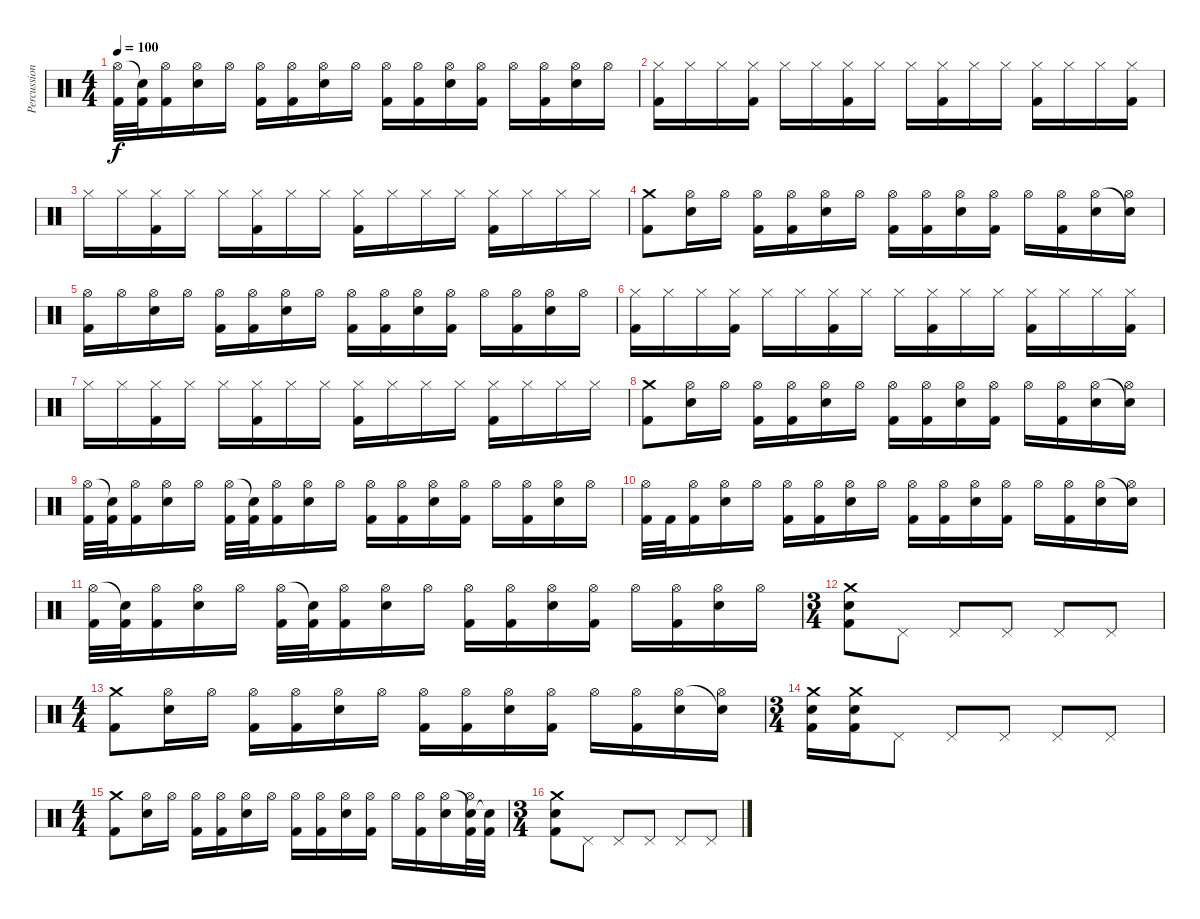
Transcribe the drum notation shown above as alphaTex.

\track ("Percussion" "Percussion") {instrument percussion}
\staff {score}
\articulation defaults
\ts (4 4)
\tempo 100
\clef neutral
\ks c
("Hi-Hat (open)" "Kick (hit) 2").32{dy f} ("Snare (hit)"{t} "Kick (hit) 2").32 ("Hi-Hat (open)" "Kick (hit) 2").16 ("Hi-Hat (open)" "Electric Snare (hit)").16 "Hi-Hat (open)".16 ("Hi-Hat (open)" "Kick (hit) 2").16 ("Hi-Hat (open)" "Kick (hit) 2").16 ("Hi-Hat (open)" "Electric Snare (hit)").16 "Hi-Hat (open)".16 ("Hi-Hat (open)" "Kick (hit) 2").16 ("Hi-Hat (open)" "Kick (hit) 2").16 ("Hi-Hat (open)" "Electric Snare (hit)").16 ("Hi-Hat (open)" "Kick (hit) 2").16 "Hi-Hat (open)".16 ("Hi-Hat (open)" "Kick (hit) 2").16 ("Hi-Hat (open)" "Electric Snare (hit)").16 "Hi-Hat (open)".16 |
("Hi-Hat (closed)" "Kick (hit) 2").16 "Hi-Hat (closed)".16 "Hi-Hat (closed)".16 ("Hi-Hat (closed)" "Kick (hit) 2").16 "Hi-Hat (closed)".16 "Hi-Hat (closed)".16 ("Hi-Hat (closed)" "Kick (hit) 2").16 "Hi-Hat (closed)".16 "Hi-Hat (closed)".16 ("Hi-Hat (closed)" "Kick (hit) 2").16 "Hi-Hat (closed)".16 "Hi-Hat (closed)".16 ("Hi-Hat (closed)" "Kick (hit) 2").16 "Hi-Hat (closed)".16 "Hi-Hat (closed)".16 ("Hi-Hat (closed)" "Kick (hit) 2").16 |
"Hi-Hat (closed)".16 "Hi-Hat (closed)".16 ("Hi-Hat (closed)" "Kick (hit) 2").16 "Hi-Hat (closed)".16 "Hi-Hat (closed)".16 ("Hi-Hat (closed)" "Kick (hit) 2").16 "Hi-Hat (closed)".16 "Hi-Hat (closed)".16 ("Hi-Hat (closed)" "Kick (hit) 2").16 "Hi-Hat (closed)".16 "Hi-Hat (closed)".16 "Hi-Hat (closed)".16 ("Hi-Hat (closed)" "Kick (hit) 2").16 "Hi-Hat (closed)".16 "Hi-Hat (closed)".16 "Hi-Hat (closed)".16 |
("Crash medium (hit)" "Kick (hit) 2").8 ("Hi-Hat (open)" "Electric Snare (hit)").16 "Hi-Hat (open)".16 ("Hi-Hat (open)" "Kick (hit) 2").16 ("Hi-Hat (open)" "Kick (hit) 2").16 ("Hi-Hat (open)" "Electric Snare (hit)").16 "Hi-Hat (open)".16 ("Hi-Hat (open)" "Kick (hit) 2").16 ("Hi-Hat (open)" "Kick (hit) 2").16 ("Hi-Hat (open)" "Electric Snare (hit)").16 ("Hi-Hat (open)" "Kick (hit) 2").16 "Hi-Hat (open)".16 ("Hi-Hat (open)" "Kick (hit) 2").16 ("Hi-Hat (open)" "Electric Snare (hit)").16 ("Snare (hit)"{t} "Hi-Hat (open)").16 |
("Hi-Hat (open)" "Kick (hit) 2").16 "Hi-Hat (open)".16 ("Hi-Hat (open)" "Electric Snare (hit)").16 "Hi-Hat (open)".16 ("Hi-Hat (open)" "Kick (hit) 2").16 ("Hi-Hat (open)" "Kick (hit) 2").16 ("Hi-Hat (open)" "Electric Snare (hit)").16 "Hi-Hat (open)".16 ("Hi-Hat (open)" "Kick (hit) 2").16 ("Hi-Hat (open)" "Kick (hit) 2").16 ("Hi-Hat (open)" "Electric Snare (hit)").16 ("Hi-Hat (open)" "Kick (hit) 2").16 "Hi-Hat (open)".16 ("Hi-Hat (open)" "Kick (hit) 2").16 ("Hi-Hat (open)" "Electric Snare (hit)").16 "Hi-Hat (open)".16 |
("Hi-Hat (closed)" "Kick (hit) 2").16 "Hi-Hat (closed)".16 "Hi-Hat (closed)".16 ("Hi-Hat (closed)" "Kick (hit) 2").16 "Hi-Hat (closed)".16 "Hi-Hat (closed)".16 ("Hi-Hat (closed)" "Kick (hit) 2").16 "Hi-Hat (closed)".16 "Hi-Hat (closed)".16 ("Hi-Hat (closed)" "Kick (hit) 2").16 "Hi-Hat (closed)".16 "Hi-Hat (closed)".16 ("Hi-Hat (closed)" "Kick (hit) 2").16 "Hi-Hat (closed)".16 "Hi-Hat (closed)".16 ("Hi-Hat (closed)" "Kick (hit) 2").16 |
"Hi-Hat (closed)".16 "Hi-Hat (closed)".16 ("Hi-Hat (closed)" "Kick (hit) 2").16 "Hi-Hat (closed)".16 "Hi-Hat (closed)".16 ("Hi-Hat (closed)" "Kick (hit) 2").16 "Hi-Hat (closed)".16 "Hi-Hat (closed)".16 ("Hi-Hat (closed)" "Kick (hit) 2").16 "Hi-Hat (closed)".16 "Hi-Hat (closed)".16 "Hi-Hat (closed)".16 ("Hi-Hat (closed)" "Kick (hit) 2").16 "Hi-Hat (closed)".16 "Hi-Hat (closed)".16 "Hi-Hat (closed)".16 |
("Crash medium (hit)" "Kick (hit) 2").8 ("Hi-Hat (open)" "Electric Snare (hit)").16 "Hi-Hat (open)".16 ("Hi-Hat (open)" "Kick (hit) 2").16 ("Hi-Hat (open)" "Kick (hit) 2").16 ("Hi-Hat (open)" "Electric Snare (hit)").16 "Hi-Hat (open)".16 ("Hi-Hat (open)" "Kick (hit) 2").16 ("Hi-Hat (open)" "Kick (hit) 2").16 ("Hi-Hat (open)" "Electric Snare (hit)").16 ("Hi-Hat (open)" "Kick (hit) 2").16 "Hi-Hat (open)".16 ("Hi-Hat (open)" "Kick (hit) 2").16 ("Hi-Hat (open)" "Electric Snare (hit)").16 ("Snare (hit)"{t} "Hi-Hat (open)").16 |
("Hi-Hat (open)" "Kick (hit) 2").32 ("Snare (hit)"{t} "Kick (hit) 2").32 ("Hi-Hat (open)" "Kick (hit) 2").16 ("Hi-Hat (open)" "Electric Snare (hit)").16 "Hi-Hat (open)".16 ("Hi-Hat (open)" "Kick (hit) 2").32 ("Snare (hit)"{t} "Kick (hit) 2").32 ("Hi-Hat (open)" "Kick (hit) 2").16 ("Hi-Hat (open)" "Electric Snare (hit)").16 "Hi-Hat (open)".16 ("Hi-Hat (open)" "Kick (hit) 2").16 ("Hi-Hat (open)" "Kick (hit) 2").16 ("Hi-Hat (open)" "Electric Snare (hit)").16 ("Hi-Hat (open)" "Kick (hit) 2").16 "Hi-Hat (open)".16 ("Hi-Hat (open)" "Kick (hit) 2").16 ("Hi-Hat (open)" "Electric Snare (hit)").16 "Hi-Hat (open)".16 |
("Hi-Hat (open)" "Kick (hit) 2").32 "Kick (hit) 2".32 ("Hi-Hat (open)" "Kick (hit) 2").16 ("Hi-Hat (open)" "Electric Snare (hit)").16 "Hi-Hat (open)".16 ("Hi-Hat (open)" "Kick (hit) 2").16 ("Hi-Hat (open)" "Kick (hit) 2").16 ("Hi-Hat (open)" "Electric Snare (hit)").16 "Hi-Hat (open)".16 ("Hi-Hat (open)" "Kick (hit) 2").16 ("Hi-Hat (open)" "Kick (hit) 2").16 ("Hi-Hat (open)" "Electric Snare (hit)").16 ("Hi-Hat (open)" "Kick (hit) 2").16 "Hi-Hat (open)".16 ("Hi-Hat (open)" "Kick (hit) 2").16 ("Hi-Hat (open)" "Electric Snare (hit)").16 ("Snare (hit)"{t} "Hi-Hat (open)").16 |
("Hi-Hat (open)" "Kick (hit) 2").32 ("Snare (hit)"{t} "Kick (hit) 2").32 ("Hi-Hat (open)" "Kick (hit) 2").16 ("Hi-Hat (open)" "Electric Snare (hit)").16 "Hi-Hat (open)".16 ("Hi-Hat (open)" "Kick (hit) 2").32 ("Snare (hit)"{t} "Kick (hit) 2").32 ("Hi-Hat (open)" "Kick (hit) 2").16 ("Hi-Hat (open)" "Electric Snare (hit)").16 "Hi-Hat (open)".16 ("Hi-Hat (open)" "Kick (hit) 2").16 ("Hi-Hat (open)" "Kick (hit) 2").16 ("Hi-Hat (open)" "Electric Snare (hit)").16 ("Hi-Hat (open)" "Kick (hit) 2").16 "Hi-Hat (open)".16 ("Hi-Hat (open)" "Kick (hit) 2").16 ("Hi-Hat (open)" "Electric Snare (hit)").16 "Hi-Hat (open)".16 |
\ts (3 4)
("Crash medium (hit)" "Electric Snare (hit)" "Kick (hit) 2").8 "Pedal Hi-Hat (hit)".8 "Pedal Hi-Hat (hit)".8 "Pedal Hi-Hat (hit)".8 "Pedal Hi-Hat (hit)".8 "Pedal Hi-Hat (hit)".8 |
\ts (4 4)
("Crash medium (hit)" "Kick (hit) 2").8 ("Hi-Hat (open)" "Electric Snare (hit)").16 "Hi-Hat (open)".16 ("Hi-Hat (open)" "Kick (hit) 2").16 ("Hi-Hat (open)" "Kick (hit) 2").16 ("Hi-Hat (open)" "Electric Snare (hit)").16 "Hi-Hat (open)".16 ("Hi-Hat (open)" "Kick (hit) 2").16 ("Hi-Hat (open)" "Kick (hit) 2").16 ("Hi-Hat (open)" "Electric Snare (hit)").16 ("Hi-Hat (open)" "Kick (hit) 2").16 "Hi-Hat (open)".16 ("Hi-Hat (open)" "Kick (hit) 2").16 ("Hi-Hat (open)" "Electric Snare (hit)").16 ("Snare (hit)"{t} "Hi-Hat (open)").16 |
\ts (3 4)
("Crash medium (hit)" "Electric Snare (hit)" "Kick (hit) 2").16 ("Crash medium (hit)" "Electric Snare (hit)" "Kick (hit) 2").16 "Pedal Hi-Hat (hit)".8 "Pedal Hi-Hat (hit)".8 "Pedal Hi-Hat (hit)".8 "Pedal Hi-Hat (hit)".8 "Pedal Hi-Hat (hit)".8 |
\ts (4 4)
("Crash medium (hit)" "Kick (hit) 2").8 ("Hi-Hat (open)" "Electric Snare (hit)").16 "Hi-Hat (open)".16 ("Hi-Hat (open)" "Kick (hit) 2").16 ("Hi-Hat (open)" "Kick (hit) 2").16 ("Hi-Hat (open)" "Electric Snare (hit)").16 "Hi-Hat (open)".16 ("Hi-Hat (open)" "Kick (hit) 2").16 ("Hi-Hat (open)" "Kick (hit) 2").16 ("Hi-Hat (open)" "Electric Snare (hit)").16 ("Hi-Hat (open)" "Kick (hit) 2").16 "Hi-Hat (open)".16 ("Hi-Hat (open)" "Kick (hit) 2").16 ("Hi-Hat (open)" "Electric Snare (hit)").16 ("Snare (hit)"{t} "Hi-Hat (open)" "Kick (hit) 2").32 ("Snare (hit)"{t} "Kick (hit) 2").32 |
\ts (3 4)
("Crash medium (hit)" "Electric Snare (hit)" "Kick (hit) 2").8 "Pedal Hi-Hat (hit)".8 "Pedal Hi-Hat (hit)".8 "Pedal Hi-Hat (hit)".8 "Pedal Hi-Hat (hit)".8 "Pedal Hi-Hat (hit)".8
